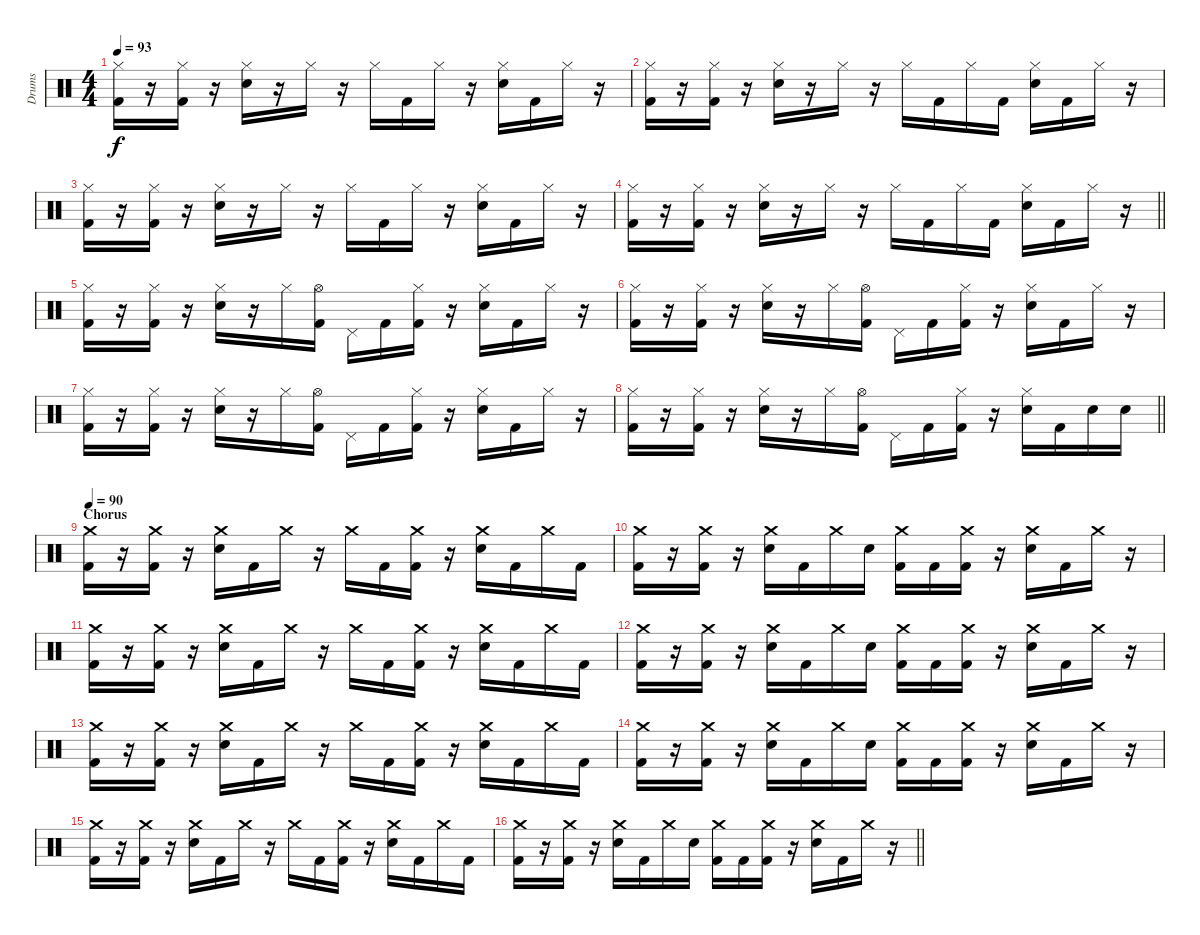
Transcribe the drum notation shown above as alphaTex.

\track ("Drums" "Drums") {instrument percussion}
\staff {score}
\articulation defaults
\ts (4 4)
\tempo 93
\clef neutral
\ks c
("Hi-Hat (closed)" "Kick (hit) 2").16{dy f} r.16 ("Hi-Hat (closed)" "Kick (hit) 2").16 r.16 ("Hi-Hat (closed)" "Electric Snare (hit)").16 r.16 "Hi-Hat (closed)".16 r.16 "Hi-Hat (closed)".16 "Kick (hit) 2".16 "Hi-Hat (closed)".16 r.16 ("Hi-Hat (closed)" "Electric Snare (hit)").16 "Kick (hit) 2".16 "Hi-Hat (closed)".16 r.16 |
("Hi-Hat (closed)" "Kick (hit) 2").16 r.16 ("Hi-Hat (closed)" "Kick (hit) 2").16 r.16 ("Hi-Hat (closed)" "Electric Snare (hit)").16 r.16 "Hi-Hat (closed)".16 r.16 "Hi-Hat (closed)".16 "Kick (hit) 2".16 "Hi-Hat (closed)".16 "Kick (hit) 2".16 ("Hi-Hat (closed)" "Electric Snare (hit)").16 "Kick (hit) 2".16 "Hi-Hat (closed)".16 r.16 |
("Hi-Hat (closed)" "Kick (hit) 2").16 r.16 ("Hi-Hat (closed)" "Kick (hit) 2").16 r.16 ("Hi-Hat (closed)" "Electric Snare (hit)").16 r.16 "Hi-Hat (closed)".16 r.16 "Hi-Hat (closed)".16 "Kick (hit) 2".16 "Hi-Hat (closed)".16 r.16 ("Hi-Hat (closed)" "Electric Snare (hit)").16 "Kick (hit) 2".16 "Hi-Hat (closed)".16 r.16 |
\barLineRight lightlight
("Hi-Hat (closed)" "Kick (hit) 2").16 r.16 ("Hi-Hat (closed)" "Kick (hit) 2").16 r.16 ("Hi-Hat (closed)" "Electric Snare (hit)").16 r.16 "Hi-Hat (closed)".16 r.16 "Hi-Hat (closed)".16 "Kick (hit) 2".16 "Hi-Hat (closed)".16 "Kick (hit) 2".16 ("Hi-Hat (closed)" "Electric Snare (hit)").16 "Kick (hit) 2".16 "Hi-Hat (closed)".16 r.16 |
\section ("" "")
("Hi-Hat (closed)" "Kick (hit) 2").16 r.16 ("Hi-Hat (closed)" "Kick (hit) 2").16 r.16 ("Hi-Hat (closed)" "Electric Snare (hit)").16 r.16 "Hi-Hat (closed)".16 ("Hi-Hat (open)" "Kick (hit) 2").16 "Pedal Hi-Hat (hit)".16 "Kick (hit) 2".16 ("Hi-Hat (closed)" "Kick (hit) 2").16 r.16 ("Hi-Hat (closed)" "Electric Snare (hit)").16 "Kick (hit) 2".16 "Hi-Hat (closed)".16 r.16 |
("Hi-Hat (closed)" "Kick (hit) 2").16 r.16 ("Hi-Hat (closed)" "Kick (hit) 2").16 r.16 ("Hi-Hat (closed)" "Electric Snare (hit)").16 r.16 "Hi-Hat (closed)".16 ("Hi-Hat (open)" "Kick (hit) 2").16 "Pedal Hi-Hat (hit)".16 "Kick (hit) 2".16 ("Hi-Hat (closed)" "Kick (hit) 2").16 r.16 ("Hi-Hat (closed)" "Electric Snare (hit)").16 "Kick (hit) 2".16 "Hi-Hat (closed)".16 r.16 |
("Hi-Hat (closed)" "Kick (hit) 2").16 r.16 ("Hi-Hat (closed)" "Kick (hit) 2").16 r.16 ("Hi-Hat (closed)" "Electric Snare (hit)").16 r.16 "Hi-Hat (closed)".16 ("Hi-Hat (open)" "Kick (hit) 2").16 "Pedal Hi-Hat (hit)".16 "Kick (hit) 2".16 ("Hi-Hat (closed)" "Kick (hit) 2").16 r.16 ("Hi-Hat (closed)" "Electric Snare (hit)").16 "Kick (hit) 2".16 "Hi-Hat (closed)".16 r.16 |
\barLineRight lightlight
("Hi-Hat (closed)" "Kick (hit) 2").16 r.16 ("Hi-Hat (closed)" "Kick (hit) 2").16 r.16 ("Hi-Hat (closed)" "Electric Snare (hit)").16 r.16 "Hi-Hat (closed)".16 ("Hi-Hat (open)" "Kick (hit) 2").16 "Pedal Hi-Hat (hit)".16 "Kick (hit) 2".16 ("Hi-Hat (closed)" "Kick (hit) 2").16 r.16 ("Hi-Hat (closed)" "Electric Snare (hit)").16 "Kick (hit) 2".16 "Electric Snare (hit)".16 "Electric Snare (hit)".16 |
\section ("" "Chorus")
\tempo 90
("Crash medium (hit)" "Kick (hit) 2").16 r.16 ("Crash medium (hit)" "Kick (hit) 2").16 r.16 ("Crash medium (hit)" "Electric Snare (hit)").16 "Kick (hit) 2".16 "Crash medium (hit)".16 r.16 "Crash medium (hit)".16 "Kick (hit) 2".16 ("Crash medium (hit)" "Kick (hit) 2").16 r.16 ("Crash medium (hit)" "Electric Snare (hit)").16 "Kick (hit) 2".16 "Crash medium (hit)".16 "Kick (hit) 2".16 |
("Crash medium (hit)" "Kick (hit) 2").16 r.16 ("Crash medium (hit)" "Kick (hit) 2").16 r.16 ("Crash medium (hit)" "Electric Snare (hit)").16 "Kick (hit) 2".16 "Crash medium (hit)".16 "Electric Snare (hit)".16 ("Crash medium (hit)" "Kick (hit) 2").16 "Kick (hit) 2".16 ("Crash medium (hit)" "Kick (hit) 2").16 r.16 ("Crash medium (hit)" "Electric Snare (hit)").16 "Kick (hit) 2".16 "Crash medium (hit)".16 r.16 |
("Crash medium (hit)" "Kick (hit) 2").16 r.16 ("Crash medium (hit)" "Kick (hit) 2").16 r.16 ("Crash medium (hit)" "Electric Snare (hit)").16 "Kick (hit) 2".16 "Crash medium (hit)".16 r.16 "Crash medium (hit)".16 "Kick (hit) 2".16 ("Crash medium (hit)" "Kick (hit) 2").16 r.16 ("Crash medium (hit)" "Electric Snare (hit)").16 "Kick (hit) 2".16 "Crash medium (hit)".16 "Kick (hit) 2".16 |
("Crash medium (hit)" "Kick (hit) 2").16 r.16 ("Crash medium (hit)" "Kick (hit) 2").16 r.16 ("Crash medium (hit)" "Electric Snare (hit)").16 "Kick (hit) 2".16 "Crash medium (hit)".16 "Electric Snare (hit)".16 ("Crash medium (hit)" "Kick (hit) 2").16 "Kick (hit) 2".16 ("Crash medium (hit)" "Kick (hit) 2").16 r.16 ("Crash medium (hit)" "Electric Snare (hit)").16 "Kick (hit) 2".16 "Crash medium (hit)".16 r.16 |
("Crash medium (hit)" "Kick (hit) 2").16 r.16 ("Crash medium (hit)" "Kick (hit) 2").16 r.16 ("Crash medium (hit)" "Electric Snare (hit)").16 "Kick (hit) 2".16 "Crash medium (hit)".16 r.16 "Crash medium (hit)".16 "Kick (hit) 2".16 ("Crash medium (hit)" "Kick (hit) 2").16 r.16 ("Crash medium (hit)" "Electric Snare (hit)").16 "Kick (hit) 2".16 "Crash medium (hit)".16 "Kick (hit) 2".16 |
("Crash medium (hit)" "Kick (hit) 2").16 r.16 ("Crash medium (hit)" "Kick (hit) 2").16 r.16 ("Crash medium (hit)" "Electric Snare (hit)").16 "Kick (hit) 2".16 "Crash medium (hit)".16 "Electric Snare (hit)".16 ("Crash medium (hit)" "Kick (hit) 2").16 "Kick (hit) 2".16 ("Crash medium (hit)" "Kick (hit) 2").16 r.16 ("Crash medium (hit)" "Electric Snare (hit)").16 "Kick (hit) 2".16 "Crash medium (hit)".16 r.16 |
("Crash medium (hit)" "Kick (hit) 2").16 r.16 ("Crash medium (hit)" "Kick (hit) 2").16 r.16 ("Crash medium (hit)" "Electric Snare (hit)").16 "Kick (hit) 2".16 "Crash medium (hit)".16 r.16 "Crash medium (hit)".16 "Kick (hit) 2".16 ("Crash medium (hit)" "Kick (hit) 2").16 r.16 ("Crash medium (hit)" "Electric Snare (hit)").16 "Kick (hit) 2".16 "Crash medium (hit)".16 "Kick (hit) 2".16 |
\barLineRight lightlight
("Crash medium (hit)" "Kick (hit) 2").16 r.16 ("Crash medium (hit)" "Kick (hit) 2").16 r.16 ("Crash medium (hit)" "Electric Snare (hit)").16 "Kick (hit) 2".16 "Crash medium (hit)".16 "Electric Snare (hit)".16 ("Crash medium (hit)" "Kick (hit) 2").16 "Kick (hit) 2".16 ("Crash medium (hit)" "Kick (hit) 2").16 r.16 ("Crash medium (hit)" "Electric Snare (hit)").16 "Kick (hit) 2".16 "Crash medium (hit)".16 r.16
